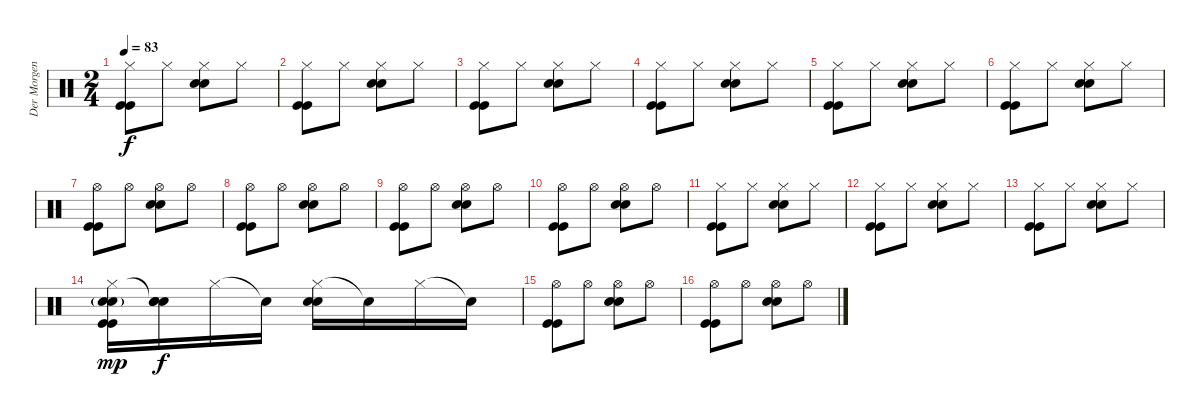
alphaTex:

\track ("Der Morgenstern" "Der Morgen") {instrument percussion}
\staff {score}
\articulation defaults
\ts (2 4)
\tempo 83
\clef neutral
\ks c
("Hi-Hat (closed)" "Kick (hit)" "Kick (hit)").8{dy f} "Hi-Hat (closed)".8 ("Hi-Hat (closed)" "Electric Snare (hit)" "Electric Snare (hit)").8 "Hi-Hat (closed)".8 |
("Hi-Hat (closed)" "Kick (hit)" "Kick (hit)").8 "Hi-Hat (closed)".8 ("Hi-Hat (closed)" "Electric Snare (hit)" "Electric Snare (hit)").8 "Hi-Hat (closed)".8 |
("Hi-Hat (closed)" "Kick (hit)" "Kick (hit)").8 "Hi-Hat (closed)".8 ("Hi-Hat (closed)" "Electric Snare (hit)" "Electric Snare (hit)").8 "Hi-Hat (closed)".8 |
("Hi-Hat (closed)" "Kick (hit)" "Kick (hit)").8 "Hi-Hat (closed)".8 ("Hi-Hat (closed)" "Electric Snare (hit)" "Electric Snare (hit)").8 "Hi-Hat (closed)".8 |
("Hi-Hat (closed)" "Kick (hit)" "Kick (hit)").8 "Hi-Hat (closed)".8 ("Hi-Hat (closed)" "Electric Snare (hit)" "Electric Snare (hit)").8 "Hi-Hat (closed)".8 |
("Hi-Hat (closed)" "Kick (hit)" "Kick (hit)").8 "Hi-Hat (closed)".8 ("Hi-Hat (closed)" "Electric Snare (hit)" "Electric Snare (hit)").8 "Hi-Hat (closed)".8 |
("Hi-Hat (open)" "Kick (hit)" "Kick (hit)").8 "Hi-Hat (open)".8 ("Hi-Hat (open)" "Electric Snare (hit)" "Electric Snare (hit)").8 "Hi-Hat (open)".8 |
("Hi-Hat (open)" "Kick (hit)" "Kick (hit)").8 "Hi-Hat (open)".8 ("Hi-Hat (open)" "Electric Snare (hit)" "Electric Snare (hit)").8 "Hi-Hat (open)".8 |
("Hi-Hat (open)" "Kick (hit)" "Kick (hit)").8 "Hi-Hat (open)".8 ("Hi-Hat (open)" "Electric Snare (hit)" "Electric Snare (hit)").8 "Hi-Hat (open)".8 |
("Hi-Hat (open)" "Kick (hit)" "Kick (hit)").8 "Hi-Hat (open)".8 ("Hi-Hat (open)" "Electric Snare (hit)" "Electric Snare (hit)").8 "Hi-Hat (open)".8 |
("Hi-Hat (closed)" "Kick (hit)" "Kick (hit)").8 "Hi-Hat (closed)".8 ("Hi-Hat (closed)" "Electric Snare (hit)" "Electric Snare (hit)").8 "Hi-Hat (closed)".8 |
("Hi-Hat (closed)" "Kick (hit)" "Kick (hit)").8 "Hi-Hat (closed)".8 ("Hi-Hat (closed)" "Electric Snare (hit)" "Electric Snare (hit)").8 "Hi-Hat (closed)".8 |
("Hi-Hat (closed)" "Kick (hit)" "Kick (hit)").8 "Hi-Hat (closed)".8 ("Hi-Hat (closed)" "Electric Snare (hit)" "Electric Snare (hit)").8 "Hi-Hat (closed)".8 |
("Hi-Hat (closed)" "Electric Snare (hit)"{g} "Electric Snare (hit)"{g} "Kick (hit)" "Kick (hit)").16{dy mp} ("Snare (hit)"{t} "Electric Snare (hit)" "Electric Snare (hit)").16{dy f} "Hi-Hat (closed)".16 "Snare (hit)"{t}.16 ("Hi-Hat (closed)" "Electric Snare (hit)" "Electric Snare (hit)").16 "Snare (hit)"{t}.16 "Hi-Hat (closed)".16 "Snare (hit)"{t}.16 |
("Hi-Hat (open)" "Kick (hit)" "Kick (hit)").8 "Hi-Hat (open)".8 ("Hi-Hat (open)" "Electric Snare (hit)" "Electric Snare (hit)").8 "Hi-Hat (open)".8 |
("Hi-Hat (open)" "Kick (hit)" "Kick (hit)").8 "Hi-Hat (open)".8 ("Hi-Hat (open)" "Electric Snare (hit)" "Electric Snare (hit)").8 "Hi-Hat (open)".8
